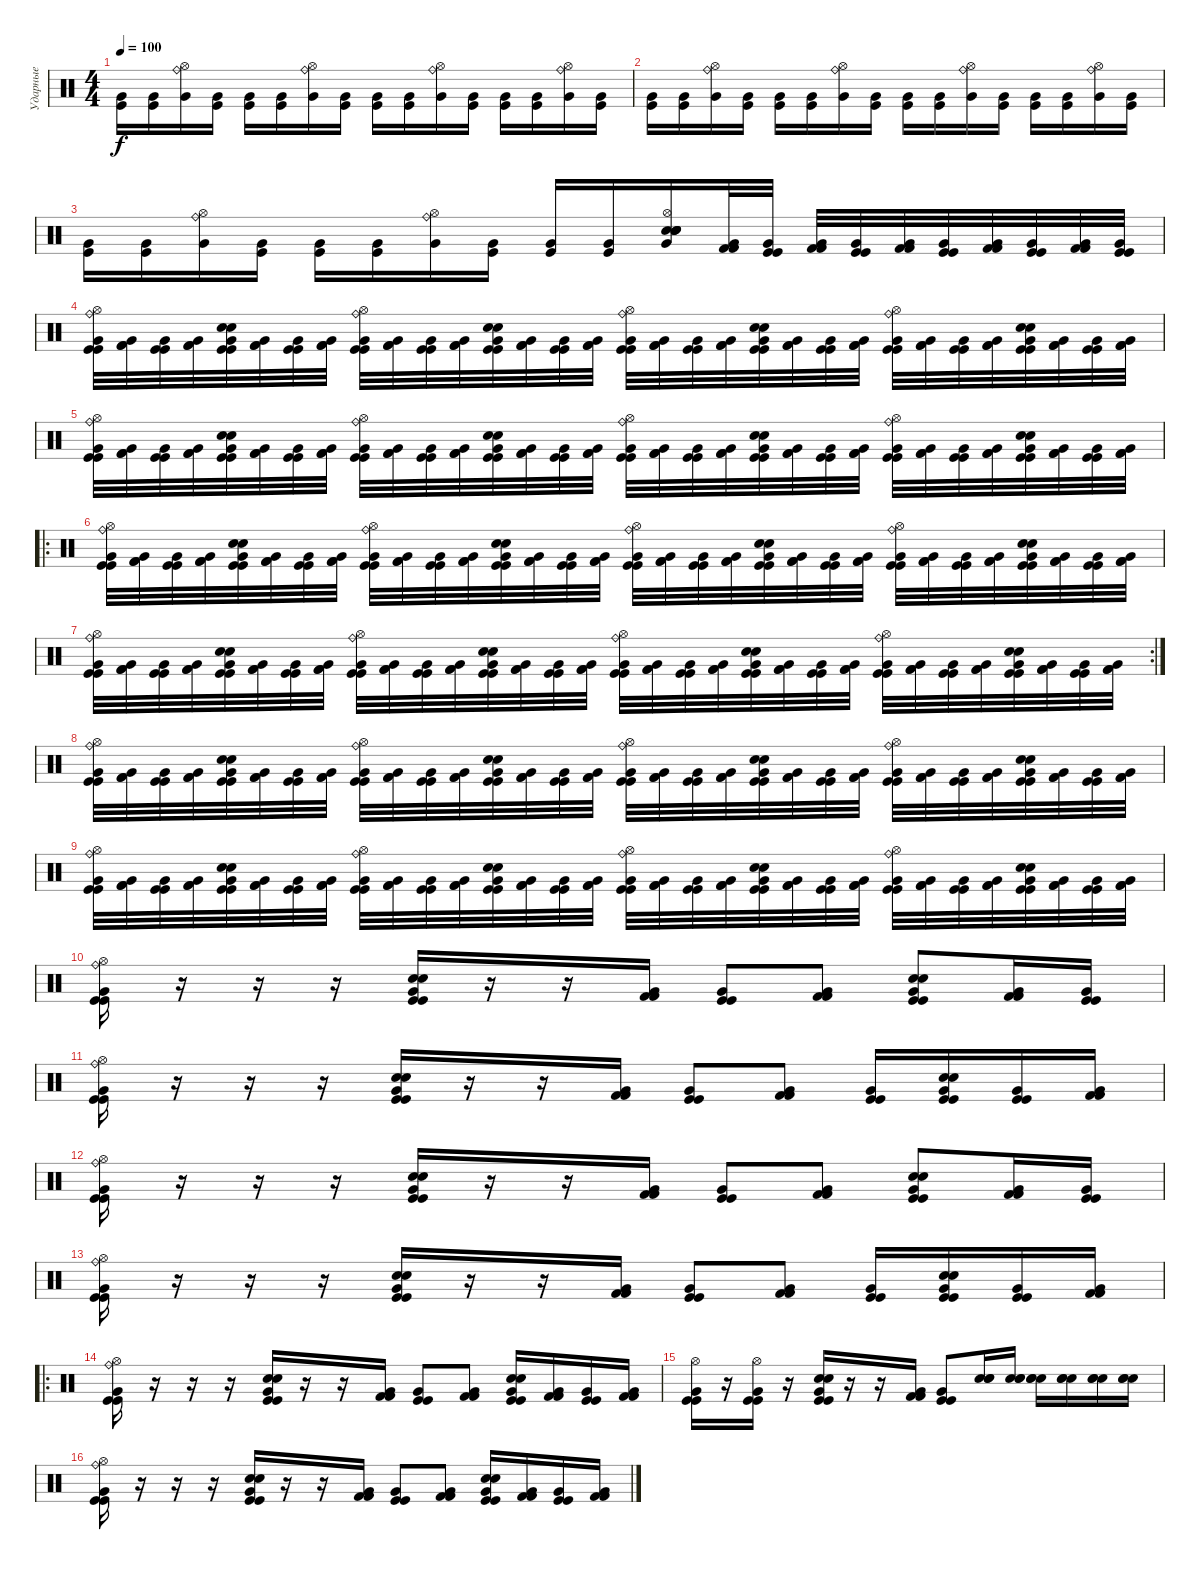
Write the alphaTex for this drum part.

\track ("Ударные" "Ударные") {instrument percussion}
\staff {score}
\articulation defaults
\ts (4 4)
\tempo 100
\clef neutral
\ks c
("Kick (hit)" "Very Low Tom (hit)").16{dy f} ("Kick (hit)" "Very Low Tom (hit)").16 ("Ride (bell)" "Hi-Hat (open)" "Very Low Tom (hit)").16 ("Kick (hit)" "Very Low Tom (hit)").16 ("Kick (hit)" "Very Low Tom (hit)").16 ("Kick (hit)" "Very Low Tom (hit)").16 ("Ride (bell)" "Hi-Hat (open)" "Very Low Tom (hit)").16 ("Kick (hit)" "Very Low Tom (hit)").16 ("Kick (hit)" "Very Low Tom (hit)").16 ("Kick (hit)" "Very Low Tom (hit)").16 ("Ride (bell)" "Hi-Hat (open)" "Very Low Tom (hit)").16 ("Kick (hit)" "Very Low Tom (hit)").16 ("Kick (hit)" "Very Low Tom (hit)").16 ("Kick (hit)" "Very Low Tom (hit)").16 ("Ride (bell)" "Hi-Hat (open)" "Very Low Tom (hit)").16 ("Kick (hit)" "Very Low Tom (hit)").16 |
("Kick (hit)" "Very Low Tom (hit)").16 ("Kick (hit)" "Very Low Tom (hit)").16 ("Ride (bell)" "Hi-Hat (open)" "Very Low Tom (hit)").16 ("Kick (hit)" "Very Low Tom (hit)").16 ("Kick (hit)" "Very Low Tom (hit)").16 ("Kick (hit)" "Very Low Tom (hit)").16 ("Ride (bell)" "Hi-Hat (open)" "Very Low Tom (hit)").16 ("Kick (hit)" "Very Low Tom (hit)").16 ("Kick (hit)" "Very Low Tom (hit)").16 ("Kick (hit)" "Very Low Tom (hit)").16 ("Ride (bell)" "Hi-Hat (open)" "Very Low Tom (hit)").16 ("Kick (hit)" "Very Low Tom (hit)").16 ("Kick (hit)" "Very Low Tom (hit)").16 ("Kick (hit)" "Very Low Tom (hit)").16 ("Ride (bell)" "Hi-Hat (open)" "Very Low Tom (hit)").16 ("Kick (hit)" "Very Low Tom (hit)").16 |
("Kick (hit)" "Very Low Tom (hit)").16 ("Kick (hit)" "Very Low Tom (hit)").16 ("Ride (bell)" "Hi-Hat (open)" "Very Low Tom (hit)").16 ("Kick (hit)" "Very Low Tom (hit)").16 ("Kick (hit)" "Very Low Tom (hit)").16 ("Kick (hit)" "Very Low Tom (hit)").16 ("Ride (bell)" "Hi-Hat (open)" "Very Low Tom (hit)").16 ("Kick (hit)" "Very Low Tom (hit)").16 ("Kick (hit)" "Very Low Tom (hit)").16 ("Kick (hit)" "Very Low Tom (hit)").16 ("Electric Snare (hit)" "Electric Snare (hit)" "Hi-Hat (open)" "Very Low Tom (hit)" "Electric Snare (hit)" "Electric Snare (hit)").16 ("Very Low Tom (hit)" "Kick (hit) 2" "Kick (hit) 2").32 ("Very Low Tom (hit)" "Kick (hit)" "Kick (hit)").32 ("Very Low Tom (hit)" "Kick (hit) 2" "Kick (hit) 2").32 ("Very Low Tom (hit)" "Kick (hit)" "Kick (hit)").32 ("Very Low Tom (hit)" "Kick (hit) 2" "Kick (hit) 2").32 ("Very Low Tom (hit)" "Kick (hit)" "Kick (hit)").32 ("Very Low Tom (hit)" "Kick (hit) 2" "Kick (hit) 2").32 ("Very Low Tom (hit)" "Kick (hit)" "Kick (hit)").32 ("Very Low Tom (hit)" "Kick (hit) 2" "Kick (hit) 2").32 ("Very Low Tom (hit)" "Kick (hit)" "Kick (hit)").32 |
("Ride (bell)" "Very Low Tom (hit)" "Kick (hit)" "Kick (hit)" "Hi-Hat (open)").32 ("Very Low Tom (hit)" "Kick (hit) 2" "Kick (hit) 2").32 ("Very Low Tom (hit)" "Kick (hit)" "Kick (hit)").32 ("Very Low Tom (hit)" "Kick (hit) 2" "Kick (hit) 2").32 ("Very Low Tom (hit)" "Kick (hit)" "Kick (hit)" "Electric Snare (hit)" "Electric Snare (hit)").32 ("Very Low Tom (hit)" "Kick (hit) 2" "Kick (hit) 2").32 ("Very Low Tom (hit)" "Kick (hit)" "Kick (hit)").32 ("Very Low Tom (hit)" "Kick (hit) 2" "Kick (hit) 2").32 ("Ride (bell)" "Very Low Tom (hit)" "Kick (hit)" "Kick (hit)" "Hi-Hat (open)").32 ("Very Low Tom (hit)" "Kick (hit) 2" "Kick (hit) 2").32 ("Very Low Tom (hit)" "Kick (hit)" "Kick (hit)").32 ("Very Low Tom (hit)" "Kick (hit) 2" "Kick (hit) 2").32 ("Very Low Tom (hit)" "Kick (hit)" "Kick (hit)" "Electric Snare (hit)" "Electric Snare (hit)").32 ("Very Low Tom (hit)" "Kick (hit) 2" "Kick (hit) 2").32 ("Very Low Tom (hit)" "Kick (hit)" "Kick (hit)").32 ("Very Low Tom (hit)" "Kick (hit) 2" "Kick (hit) 2").32 ("Ride (bell)" "Very Low Tom (hit)" "Kick (hit)" "Kick (hit)" "Hi-Hat (open)").32 ("Very Low Tom (hit)" "Kick (hit) 2" "Kick (hit) 2").32 ("Very Low Tom (hit)" "Kick (hit)" "Kick (hit)").32 ("Very Low Tom (hit)" "Kick (hit) 2" "Kick (hit) 2").32 ("Very Low Tom (hit)" "Kick (hit)" "Kick (hit)" "Electric Snare (hit)" "Electric Snare (hit)").32 ("Very Low Tom (hit)" "Kick (hit) 2" "Kick (hit) 2").32 ("Very Low Tom (hit)" "Kick (hit)" "Kick (hit)").32 ("Very Low Tom (hit)" "Kick (hit) 2" "Kick (hit) 2").32 ("Ride (bell)" "Very Low Tom (hit)" "Kick (hit)" "Kick (hit)" "Hi-Hat (open)").32 ("Very Low Tom (hit)" "Kick (hit) 2" "Kick (hit) 2").32 ("Very Low Tom (hit)" "Kick (hit)" "Kick (hit)").32 ("Very Low Tom (hit)" "Kick (hit) 2" "Kick (hit) 2").32 ("Very Low Tom (hit)" "Kick (hit)" "Kick (hit)" "Electric Snare (hit)" "Electric Snare (hit)").32 ("Very Low Tom (hit)" "Kick (hit) 2" "Kick (hit) 2").32 ("Very Low Tom (hit)" "Kick (hit)" "Kick (hit)").32 ("Very Low Tom (hit)" "Kick (hit) 2" "Kick (hit) 2").32 |
("Ride (bell)" "Very Low Tom (hit)" "Kick (hit)" "Kick (hit)" "Hi-Hat (open)").32 ("Very Low Tom (hit)" "Kick (hit) 2" "Kick (hit) 2").32 ("Very Low Tom (hit)" "Kick (hit)" "Kick (hit)").32 ("Very Low Tom (hit)" "Kick (hit) 2" "Kick (hit) 2").32 ("Very Low Tom (hit)" "Kick (hit)" "Kick (hit)" "Electric Snare (hit)" "Electric Snare (hit)").32 ("Very Low Tom (hit)" "Kick (hit) 2" "Kick (hit) 2").32 ("Very Low Tom (hit)" "Kick (hit)" "Kick (hit)").32 ("Very Low Tom (hit)" "Kick (hit) 2" "Kick (hit) 2").32 ("Ride (bell)" "Very Low Tom (hit)" "Kick (hit)" "Kick (hit)" "Hi-Hat (open)").32 ("Very Low Tom (hit)" "Kick (hit) 2" "Kick (hit) 2").32 ("Very Low Tom (hit)" "Kick (hit)" "Kick (hit)").32 ("Very Low Tom (hit)" "Kick (hit) 2" "Kick (hit) 2").32 ("Very Low Tom (hit)" "Kick (hit)" "Kick (hit)" "Electric Snare (hit)" "Electric Snare (hit)").32 ("Very Low Tom (hit)" "Kick (hit) 2" "Kick (hit) 2").32 ("Very Low Tom (hit)" "Kick (hit)" "Kick (hit)").32 ("Very Low Tom (hit)" "Kick (hit) 2" "Kick (hit) 2").32 ("Ride (bell)" "Very Low Tom (hit)" "Kick (hit)" "Kick (hit)" "Hi-Hat (open)").32 ("Very Low Tom (hit)" "Kick (hit) 2" "Kick (hit) 2").32 ("Very Low Tom (hit)" "Kick (hit)" "Kick (hit)").32 ("Very Low Tom (hit)" "Kick (hit) 2" "Kick (hit) 2").32 ("Very Low Tom (hit)" "Kick (hit)" "Kick (hit)" "Electric Snare (hit)" "Electric Snare (hit)").32 ("Very Low Tom (hit)" "Kick (hit) 2" "Kick (hit) 2").32 ("Very Low Tom (hit)" "Kick (hit)" "Kick (hit)").32 ("Very Low Tom (hit)" "Kick (hit) 2" "Kick (hit) 2").32 ("Ride (bell)" "Very Low Tom (hit)" "Kick (hit)" "Kick (hit)" "Hi-Hat (open)").32 ("Very Low Tom (hit)" "Kick (hit) 2" "Kick (hit) 2").32 ("Very Low Tom (hit)" "Kick (hit)" "Kick (hit)").32 ("Very Low Tom (hit)" "Kick (hit) 2" "Kick (hit) 2").32 ("Very Low Tom (hit)" "Kick (hit)" "Kick (hit)" "Electric Snare (hit)" "Electric Snare (hit)").32 ("Very Low Tom (hit)" "Kick (hit) 2" "Kick (hit) 2").32 ("Very Low Tom (hit)" "Kick (hit)" "Kick (hit)").32 ("Very Low Tom (hit)" "Kick (hit) 2" "Kick (hit) 2").32 |
\ro
("Ride (bell)" "Very Low Tom (hit)" "Kick (hit)" "Kick (hit)" "Hi-Hat (open)").32 ("Very Low Tom (hit)" "Kick (hit) 2" "Kick (hit) 2").32 ("Very Low Tom (hit)" "Kick (hit)" "Kick (hit)").32 ("Very Low Tom (hit)" "Kick (hit) 2" "Kick (hit) 2").32 ("Very Low Tom (hit)" "Kick (hit)" "Kick (hit)" "Electric Snare (hit)" "Electric Snare (hit)").32 ("Very Low Tom (hit)" "Kick (hit) 2" "Kick (hit) 2").32 ("Very Low Tom (hit)" "Kick (hit)" "Kick (hit)").32 ("Very Low Tom (hit)" "Kick (hit) 2" "Kick (hit) 2").32 ("Ride (bell)" "Very Low Tom (hit)" "Kick (hit)" "Kick (hit)" "Hi-Hat (open)").32 ("Very Low Tom (hit)" "Kick (hit) 2" "Kick (hit) 2").32 ("Very Low Tom (hit)" "Kick (hit)" "Kick (hit)").32 ("Very Low Tom (hit)" "Kick (hit) 2" "Kick (hit) 2").32 ("Very Low Tom (hit)" "Kick (hit)" "Kick (hit)" "Electric Snare (hit)" "Electric Snare (hit)").32 ("Very Low Tom (hit)" "Kick (hit) 2" "Kick (hit) 2").32 ("Very Low Tom (hit)" "Kick (hit)" "Kick (hit)").32 ("Very Low Tom (hit)" "Kick (hit) 2" "Kick (hit) 2").32 ("Ride (bell)" "Very Low Tom (hit)" "Kick (hit)" "Kick (hit)" "Hi-Hat (open)").32 ("Very Low Tom (hit)" "Kick (hit) 2" "Kick (hit) 2").32 ("Very Low Tom (hit)" "Kick (hit)" "Kick (hit)").32 ("Very Low Tom (hit)" "Kick (hit) 2" "Kick (hit) 2").32 ("Very Low Tom (hit)" "Kick (hit)" "Kick (hit)" "Electric Snare (hit)" "Electric Snare (hit)").32 ("Very Low Tom (hit)" "Kick (hit) 2" "Kick (hit) 2").32 ("Very Low Tom (hit)" "Kick (hit)" "Kick (hit)").32 ("Very Low Tom (hit)" "Kick (hit) 2" "Kick (hit) 2").32 ("Ride (bell)" "Very Low Tom (hit)" "Kick (hit)" "Kick (hit)" "Hi-Hat (open)").32 ("Very Low Tom (hit)" "Kick (hit) 2" "Kick (hit) 2").32 ("Very Low Tom (hit)" "Kick (hit)" "Kick (hit)").32 ("Very Low Tom (hit)" "Kick (hit) 2" "Kick (hit) 2").32 ("Very Low Tom (hit)" "Kick (hit)" "Kick (hit)" "Electric Snare (hit)" "Electric Snare (hit)").32 ("Very Low Tom (hit)" "Kick (hit) 2" "Kick (hit) 2").32 ("Very Low Tom (hit)" "Kick (hit)" "Kick (hit)").32 ("Very Low Tom (hit)" "Kick (hit) 2" "Kick (hit) 2").32 |
\rc 2
("Ride (bell)" "Very Low Tom (hit)" "Kick (hit)" "Kick (hit)" "Hi-Hat (open)").32 ("Very Low Tom (hit)" "Kick (hit) 2" "Kick (hit) 2").32 ("Very Low Tom (hit)" "Kick (hit)" "Kick (hit)").32 ("Very Low Tom (hit)" "Kick (hit) 2" "Kick (hit) 2").32 ("Very Low Tom (hit)" "Kick (hit)" "Kick (hit)" "Electric Snare (hit)" "Electric Snare (hit)").32 ("Very Low Tom (hit)" "Kick (hit) 2" "Kick (hit) 2").32 ("Very Low Tom (hit)" "Kick (hit)" "Kick (hit)").32 ("Very Low Tom (hit)" "Kick (hit) 2" "Kick (hit) 2").32 ("Ride (bell)" "Very Low Tom (hit)" "Kick (hit)" "Kick (hit)" "Hi-Hat (open)").32 ("Very Low Tom (hit)" "Kick (hit) 2" "Kick (hit) 2").32 ("Very Low Tom (hit)" "Kick (hit)" "Kick (hit)").32 ("Very Low Tom (hit)" "Kick (hit) 2" "Kick (hit) 2").32 ("Very Low Tom (hit)" "Kick (hit)" "Kick (hit)" "Electric Snare (hit)" "Electric Snare (hit)").32 ("Very Low Tom (hit)" "Kick (hit) 2" "Kick (hit) 2").32 ("Very Low Tom (hit)" "Kick (hit)" "Kick (hit)").32 ("Very Low Tom (hit)" "Kick (hit) 2" "Kick (hit) 2").32 ("Ride (bell)" "Very Low Tom (hit)" "Kick (hit)" "Kick (hit)" "Hi-Hat (open)").32 ("Very Low Tom (hit)" "Kick (hit) 2" "Kick (hit) 2").32 ("Very Low Tom (hit)" "Kick (hit)" "Kick (hit)").32 ("Very Low Tom (hit)" "Kick (hit) 2" "Kick (hit) 2").32 ("Very Low Tom (hit)" "Kick (hit)" "Kick (hit)" "Electric Snare (hit)" "Electric Snare (hit)").32 ("Very Low Tom (hit)" "Kick (hit) 2" "Kick (hit) 2").32 ("Very Low Tom (hit)" "Kick (hit)" "Kick (hit)").32 ("Very Low Tom (hit)" "Kick (hit) 2" "Kick (hit) 2").32 ("Ride (bell)" "Very Low Tom (hit)" "Kick (hit)" "Kick (hit)" "Hi-Hat (open)").32 ("Very Low Tom (hit)" "Kick (hit) 2" "Kick (hit) 2").32 ("Very Low Tom (hit)" "Kick (hit)" "Kick (hit)").32 ("Very Low Tom (hit)" "Kick (hit) 2" "Kick (hit) 2").32 ("Very Low Tom (hit)" "Kick (hit)" "Kick (hit)" "Electric Snare (hit)" "Electric Snare (hit)").32 ("Very Low Tom (hit)" "Kick (hit) 2" "Kick (hit) 2").32 ("Very Low Tom (hit)" "Kick (hit)" "Kick (hit)").32 ("Very Low Tom (hit)" "Kick (hit) 2" "Kick (hit) 2").32 |
("Ride (bell)" "Very Low Tom (hit)" "Kick (hit)" "Kick (hit)" "Hi-Hat (open)").32 ("Very Low Tom (hit)" "Kick (hit) 2" "Kick (hit) 2").32 ("Very Low Tom (hit)" "Kick (hit)" "Kick (hit)").32 ("Very Low Tom (hit)" "Kick (hit) 2" "Kick (hit) 2").32 ("Very Low Tom (hit)" "Kick (hit)" "Kick (hit)" "Electric Snare (hit)" "Electric Snare (hit)").32 ("Very Low Tom (hit)" "Kick (hit) 2" "Kick (hit) 2").32 ("Very Low Tom (hit)" "Kick (hit)" "Kick (hit)").32 ("Very Low Tom (hit)" "Kick (hit) 2" "Kick (hit) 2").32 ("Ride (bell)" "Very Low Tom (hit)" "Kick (hit)" "Kick (hit)" "Hi-Hat (open)").32 ("Very Low Tom (hit)" "Kick (hit) 2" "Kick (hit) 2").32 ("Very Low Tom (hit)" "Kick (hit)" "Kick (hit)").32 ("Very Low Tom (hit)" "Kick (hit) 2" "Kick (hit) 2").32 ("Very Low Tom (hit)" "Kick (hit)" "Kick (hit)" "Electric Snare (hit)" "Electric Snare (hit)").32 ("Very Low Tom (hit)" "Kick (hit) 2" "Kick (hit) 2").32 ("Very Low Tom (hit)" "Kick (hit)" "Kick (hit)").32 ("Very Low Tom (hit)" "Kick (hit) 2" "Kick (hit) 2").32 ("Ride (bell)" "Very Low Tom (hit)" "Kick (hit)" "Kick (hit)" "Hi-Hat (open)").32 ("Very Low Tom (hit)" "Kick (hit) 2" "Kick (hit) 2").32 ("Very Low Tom (hit)" "Kick (hit)" "Kick (hit)").32 ("Very Low Tom (hit)" "Kick (hit) 2" "Kick (hit) 2").32 ("Very Low Tom (hit)" "Kick (hit)" "Kick (hit)" "Electric Snare (hit)" "Electric Snare (hit)").32 ("Very Low Tom (hit)" "Kick (hit) 2" "Kick (hit) 2").32 ("Very Low Tom (hit)" "Kick (hit)" "Kick (hit)").32 ("Very Low Tom (hit)" "Kick (hit) 2" "Kick (hit) 2").32 ("Ride (bell)" "Very Low Tom (hit)" "Kick (hit)" "Kick (hit)" "Hi-Hat (open)").32 ("Very Low Tom (hit)" "Kick (hit) 2" "Kick (hit) 2").32 ("Very Low Tom (hit)" "Kick (hit)" "Kick (hit)").32 ("Very Low Tom (hit)" "Kick (hit) 2" "Kick (hit) 2").32 ("Very Low Tom (hit)" "Kick (hit)" "Kick (hit)" "Electric Snare (hit)" "Electric Snare (hit)").32 ("Very Low Tom (hit)" "Kick (hit) 2" "Kick (hit) 2").32 ("Very Low Tom (hit)" "Kick (hit)" "Kick (hit)").32 ("Very Low Tom (hit)" "Kick (hit) 2" "Kick (hit) 2").32 |
("Ride (bell)" "Very Low Tom (hit)" "Kick (hit)" "Kick (hit)" "Hi-Hat (open)").32 ("Very Low Tom (hit)" "Kick (hit) 2" "Kick (hit) 2").32 ("Very Low Tom (hit)" "Kick (hit)" "Kick (hit)").32 ("Very Low Tom (hit)" "Kick (hit) 2" "Kick (hit) 2").32 ("Very Low Tom (hit)" "Kick (hit)" "Kick (hit)" "Electric Snare (hit)" "Electric Snare (hit)").32 ("Very Low Tom (hit)" "Kick (hit) 2" "Kick (hit) 2").32 ("Very Low Tom (hit)" "Kick (hit)" "Kick (hit)").32 ("Very Low Tom (hit)" "Kick (hit) 2" "Kick (hit) 2").32 ("Ride (bell)" "Very Low Tom (hit)" "Kick (hit)" "Kick (hit)" "Hi-Hat (open)").32 ("Very Low Tom (hit)" "Kick (hit) 2" "Kick (hit) 2").32 ("Very Low Tom (hit)" "Kick (hit)" "Kick (hit)").32 ("Very Low Tom (hit)" "Kick (hit) 2" "Kick (hit) 2").32 ("Very Low Tom (hit)" "Kick (hit)" "Kick (hit)" "Electric Snare (hit)" "Electric Snare (hit)").32 ("Very Low Tom (hit)" "Kick (hit) 2" "Kick (hit) 2").32 ("Very Low Tom (hit)" "Kick (hit)" "Kick (hit)").32 ("Very Low Tom (hit)" "Kick (hit) 2" "Kick (hit) 2").32 ("Ride (bell)" "Very Low Tom (hit)" "Kick (hit)" "Kick (hit)" "Hi-Hat (open)").32 ("Very Low Tom (hit)" "Kick (hit) 2" "Kick (hit) 2").32 ("Very Low Tom (hit)" "Kick (hit)" "Kick (hit)").32 ("Very Low Tom (hit)" "Kick (hit) 2" "Kick (hit) 2").32 ("Very Low Tom (hit)" "Kick (hit)" "Kick (hit)" "Electric Snare (hit)" "Electric Snare (hit)").32 ("Very Low Tom (hit)" "Kick (hit) 2" "Kick (hit) 2").32 ("Very Low Tom (hit)" "Kick (hit)" "Kick (hit)").32 ("Very Low Tom (hit)" "Kick (hit) 2" "Kick (hit) 2").32 ("Ride (bell)" "Very Low Tom (hit)" "Kick (hit)" "Kick (hit)" "Hi-Hat (open)").32 ("Very Low Tom (hit)" "Kick (hit) 2" "Kick (hit) 2").32 ("Very Low Tom (hit)" "Kick (hit)" "Kick (hit)").32 ("Very Low Tom (hit)" "Kick (hit) 2" "Kick (hit) 2").32 ("Very Low Tom (hit)" "Kick (hit)" "Kick (hit)" "Electric Snare (hit)" "Electric Snare (hit)").32 ("Very Low Tom (hit)" "Kick (hit) 2" "Kick (hit) 2").32 ("Very Low Tom (hit)" "Kick (hit)" "Kick (hit)").32 ("Very Low Tom (hit)" "Kick (hit) 2" "Kick (hit) 2").32 |
("Ride (bell)" "Very Low Tom (hit)" "Kick (hit)" "Kick (hit)" "Hi-Hat (open)").16 r.16 r.16 r.16 ("Very Low Tom (hit)" "Kick (hit)" "Kick (hit)" "Electric Snare (hit)" "Electric Snare (hit)").16 r.16 r.16 ("Very Low Tom (hit)" "Kick (hit) 2" "Kick (hit) 2").16 ("Very Low Tom (hit)" "Kick (hit)" "Kick (hit)").8 ("Very Low Tom (hit)" "Kick (hit) 2" "Kick (hit) 2").8 ("Very Low Tom (hit)" "Kick (hit)" "Kick (hit)" "Electric Snare (hit)" "Electric Snare (hit)").8 ("Very Low Tom (hit)" "Kick (hit) 2" "Kick (hit) 2").16 ("Very Low Tom (hit)" "Kick (hit)" "Kick (hit)").16 |
("Ride (bell)" "Very Low Tom (hit)" "Kick (hit)" "Kick (hit)" "Hi-Hat (open)").16 r.16 r.16 r.16 ("Very Low Tom (hit)" "Kick (hit)" "Kick (hit)" "Electric Snare (hit)" "Electric Snare (hit)").16 r.16 r.16 ("Very Low Tom (hit)" "Kick (hit) 2" "Kick (hit) 2").16 ("Very Low Tom (hit)" "Kick (hit)" "Kick (hit)").8 ("Very Low Tom (hit)" "Kick (hit) 2" "Kick (hit) 2").8 ("Very Low Tom (hit)" "Kick (hit)" "Kick (hit)").16 ("Very Low Tom (hit)" "Kick (hit)" "Kick (hit)" "Electric Snare (hit)" "Electric Snare (hit)").16 ("Very Low Tom (hit)" "Kick (hit)" "Kick (hit)").16 ("Very Low Tom (hit)" "Kick (hit) 2" "Kick (hit) 2").16 |
("Ride (bell)" "Very Low Tom (hit)" "Kick (hit)" "Kick (hit)" "Hi-Hat (open)").16 r.16 r.16 r.16 ("Very Low Tom (hit)" "Kick (hit)" "Kick (hit)" "Electric Snare (hit)" "Electric Snare (hit)").16 r.16 r.16 ("Very Low Tom (hit)" "Kick (hit) 2" "Kick (hit) 2").16 ("Very Low Tom (hit)" "Kick (hit)" "Kick (hit)").8 ("Very Low Tom (hit)" "Kick (hit) 2" "Kick (hit) 2").8 ("Very Low Tom (hit)" "Kick (hit)" "Kick (hit)" "Electric Snare (hit)" "Electric Snare (hit)").8 ("Very Low Tom (hit)" "Kick (hit) 2" "Kick (hit) 2").16 ("Very Low Tom (hit)" "Kick (hit)" "Kick (hit)").16 |
("Ride (bell)" "Very Low Tom (hit)" "Kick (hit)" "Kick (hit)" "Hi-Hat (open)").16 r.16 r.16 r.16 ("Very Low Tom (hit)" "Kick (hit)" "Kick (hit)" "Electric Snare (hit)" "Electric Snare (hit)").16 r.16 r.16 ("Very Low Tom (hit)" "Kick (hit) 2" "Kick (hit) 2").16 ("Very Low Tom (hit)" "Kick (hit)" "Kick (hit)").8 ("Very Low Tom (hit)" "Kick (hit) 2" "Kick (hit) 2").8 ("Very Low Tom (hit)" "Kick (hit)" "Kick (hit)").16 ("Very Low Tom (hit)" "Kick (hit)" "Kick (hit)" "Electric Snare (hit)" "Electric Snare (hit)").16 ("Very Low Tom (hit)" "Kick (hit)" "Kick (hit)").16 ("Very Low Tom (hit)" "Kick (hit) 2" "Kick (hit) 2").16 |
\ro
("Ride (bell)" "Very Low Tom (hit)" "Kick (hit)" "Kick (hit)" "Hi-Hat (open)").16 r.16 r.16 r.16 ("Very Low Tom (hit)" "Kick (hit)" "Kick (hit)" "Electric Snare (hit)" "Electric Snare (hit)").16 r.16 r.16 ("Very Low Tom (hit)" "Kick (hit) 2" "Kick (hit) 2").16 ("Very Low Tom (hit)" "Kick (hit)" "Kick (hit)").8 ("Very Low Tom (hit)" "Kick (hit) 2" "Kick (hit) 2").8 ("Very Low Tom (hit)" "Kick (hit)" "Kick (hit)" "Electric Snare (hit)" "Electric Snare (hit)").16 ("Very Low Tom (hit)" "Kick (hit) 2" "Kick (hit) 2").16 ("Very Low Tom (hit)" "Kick (hit)" "Kick (hit)").16 ("Very Low Tom (hit)" "Kick (hit) 2" "Kick (hit) 2").16 |
("Very Low Tom (hit)" "Kick (hit)" "Kick (hit)" "Hi-Hat (open)").16 r.16 ("Very Low Tom (hit)" "Kick (hit)" "Kick (hit)" "Hi-Hat (open)").16 r.16 ("Very Low Tom (hit)" "Kick (hit)" "Kick (hit)" "Electric Snare (hit)" "Electric Snare (hit)").16 r.16 r.16 ("Very Low Tom (hit)" "Kick (hit) 2" "Kick (hit) 2").16 ("Very Low Tom (hit)" "Kick (hit)" "Kick (hit)").8 ("Snare (hit) 2" "Electric Snare (hit)" "Electric Snare (hit)").16 ("Snare (hit) 2" "Electric Snare (hit)" "Electric Snare (hit)").16 ("Snare (hit) 2" "Electric Snare (hit)" "Electric Snare (hit)").16 ("Snare (hit) 2" "Electric Snare (hit)" "Electric Snare (hit)").16 ("Snare (hit) 2" "Electric Snare (hit)" "Electric Snare (hit)").16 ("Snare (hit) 2" "Electric Snare (hit)" "Electric Snare (hit)").16 |
("Ride (bell)" "Very Low Tom (hit)" "Kick (hit)" "Kick (hit)" "Hi-Hat (open)").16 r.16 r.16 r.16 ("Very Low Tom (hit)" "Kick (hit)" "Kick (hit)" "Electric Snare (hit)" "Electric Snare (hit)").16 r.16 r.16 ("Very Low Tom (hit)" "Kick (hit) 2" "Kick (hit) 2").16 ("Very Low Tom (hit)" "Kick (hit)" "Kick (hit)").8 ("Very Low Tom (hit)" "Kick (hit) 2" "Kick (hit) 2").8 ("Very Low Tom (hit)" "Kick (hit)" "Kick (hit)" "Electric Snare (hit)" "Electric Snare (hit)").16 ("Very Low Tom (hit)" "Kick (hit) 2" "Kick (hit) 2").16 ("Very Low Tom (hit)" "Kick (hit)" "Kick (hit)").16 ("Very Low Tom (hit)" "Kick (hit) 2" "Kick (hit) 2").16
